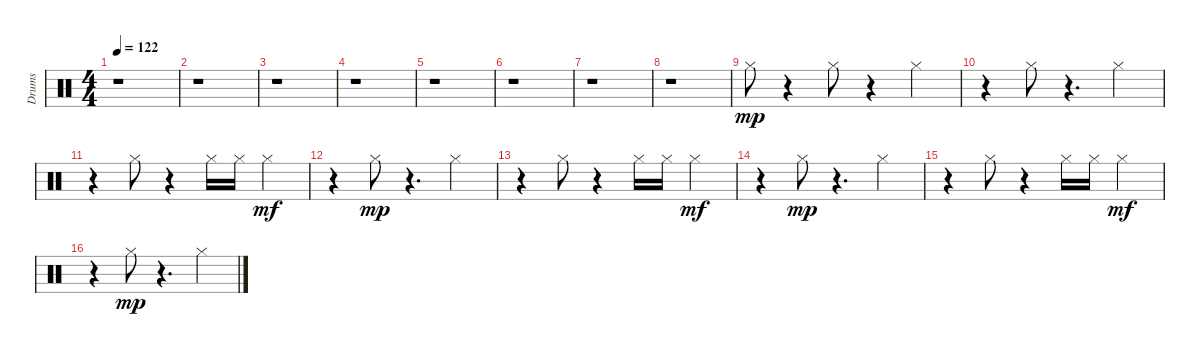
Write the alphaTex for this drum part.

\track ("Drums" "Drums") {instrument percussion}
\staff {score}
\articulation defaults
\ts (4 4)
\tempo 122
\clef neutral
\ks c
r.1{dy mp} |
r.1 |
r.1 |
r.1 |
r.1 |
r.1 |
r.1 |
r.1 |
"Hi-Hat (closed)".8 r.4 "Hi-Hat (closed)".8 r.4 "Hi-Hat (closed)".4 |
r.4 "Hi-Hat (closed)".8 r.4{d} "Hi-Hat (closed)".4 |
r.4 "Hi-Hat (closed)".8 r.4 "Hi-Hat (closed)".16 "Hi-Hat (closed)".16 "Hi-Hat (closed)".4{dy mf} |
r.4 "Hi-Hat (closed)".8{dy mp} r.4{d} "Hi-Hat (closed)".4 |
r.4 "Hi-Hat (closed)".8 r.4 "Hi-Hat (closed)".16 "Hi-Hat (closed)".16 "Hi-Hat (closed)".4{dy mf} |
r.4 "Hi-Hat (closed)".8{dy mp} r.4{d} "Hi-Hat (closed)".4 |
r.4 "Hi-Hat (closed)".8 r.4 "Hi-Hat (closed)".16 "Hi-Hat (closed)".16 "Hi-Hat (closed)".4{dy mf} |
r.4 "Hi-Hat (closed)".8{dy mp} r.4{d} "Hi-Hat (closed)".4
